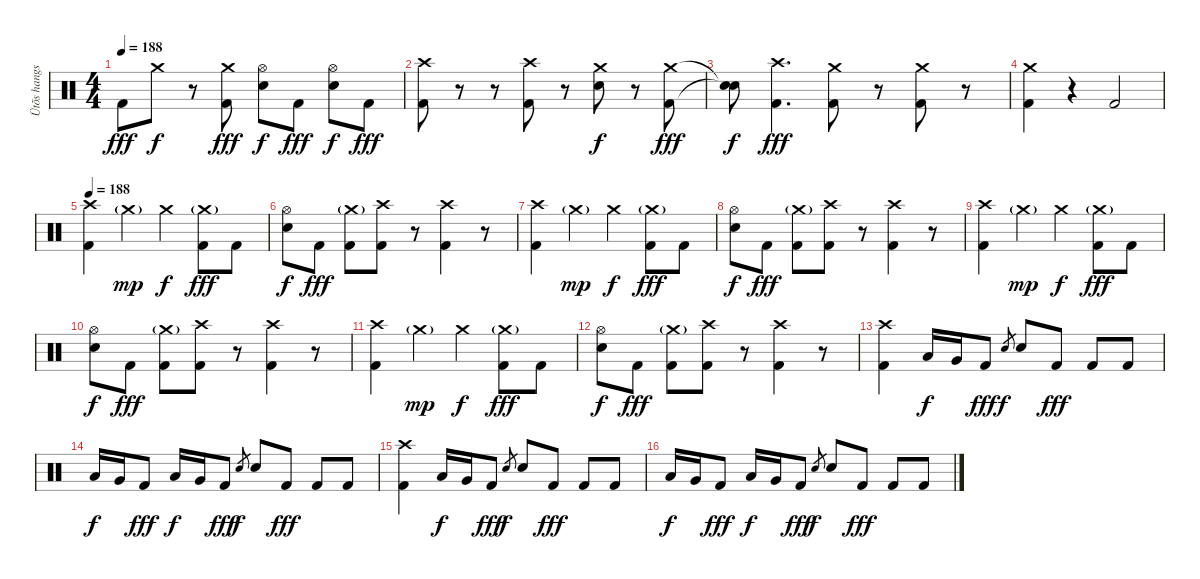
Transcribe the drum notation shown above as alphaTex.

\track ("Ütõs hangszer" "Ütõs hangs") {instrument percussion}
\staff {score}
\articulation defaults
\ts (4 4)
\tempo 188
\clef neutral
\ks c "Kick (hit) 2".8{dy fff} "Crash medium (hit)".8{dy f}
r.8 ("Crash medium (hit)" "Kick (hit) 2").8{dy fff} ("Hi-Hat (open)" "Electric Snare (hit)").8{dy f} "Kick (hit) 2".8{dy fff} ("Hi-Hat (open)" "Electric Snare (hit)").8{dy f} "Kick (hit) 2".8{dy fff} |
("Crash high (hit)" "Kick (hit) 2").8 r.8 r.8 ("Crash high (hit)" "Kick (hit) 2").8 r.8 ("Crash medium (hit)" "Electric Snare (hit)").8{dy f} r.8 ("Crash medium (hit)" "Kick (hit) 2").8{dy fff} |
("Snare (hit)"{t} "Snare (hit)"{t}).8{dy f} ("Crash high (hit)" "Kick (hit) 2").4{d dy fff} ("Crash medium (hit)" "Kick (hit) 2").8 r.8 ("Crash medium (hit)" "Kick (hit) 2").8 r.8 |
("Crash medium (hit)" "Kick (hit) 2").4 r.4 "Kick (hit) 2".2 |
\tempo 188
("Crash high (hit)" "Kick (hit) 2").4 "Crash medium (hit)"{g}.4{dy mp} "Crash medium (hit)".4{dy f} ("Crash medium (hit)"{g} "Kick (hit) 2").8{dy fff} "Kick (hit) 2".8 |
("Hi-Hat (open)" "Electric Snare (hit)").8{dy f} "Kick (hit) 2".8{dy fff} ("Crash medium (hit)"{g} "Kick (hit) 2").8 ("Crash high (hit)" "Kick (hit) 2").8 r.8 ("Crash high (hit)" "Kick (hit) 2").4 r.8 |
("Crash high (hit)" "Kick (hit) 2").4 "Crash medium (hit)"{g}.4{dy mp} "Crash medium (hit)".4{dy f} ("Crash medium (hit)"{g} "Kick (hit) 2").8{dy fff} "Kick (hit) 2".8 |
("Hi-Hat (open)" "Electric Snare (hit)").8{dy f} "Kick (hit) 2".8{dy fff} ("Crash medium (hit)"{g} "Kick (hit) 2").8 ("Crash high (hit)" "Kick (hit) 2").8 r.8 ("Crash high (hit)" "Kick (hit) 2").4 r.8 |
("Crash high (hit)" "Kick (hit) 2").4 "Crash medium (hit)"{g}.4{dy mp} "Crash medium (hit)".4{dy f} ("Crash medium (hit)"{g} "Kick (hit) 2").8{dy fff} "Kick (hit) 2".8 |
("Hi-Hat (open)" "Electric Snare (hit)").8{dy f} "Kick (hit) 2".8{dy fff} ("Crash medium (hit)"{g} "Kick (hit) 2").8 ("Crash high (hit)" "Kick (hit) 2").8 r.8 ("Crash high (hit)" "Kick (hit) 2").4 r.8 |
("Crash high (hit)" "Kick (hit) 2").4 "Crash medium (hit)"{g}.4{dy mp} "Crash medium (hit)".4{dy f} ("Crash medium (hit)"{g} "Kick (hit) 2").8{dy fff} "Kick (hit) 2".8 |
("Hi-Hat (open)" "Electric Snare (hit)").8{dy f} "Kick (hit) 2".8{dy fff} ("Crash medium (hit)"{g} "Kick (hit) 2").8 ("Crash high (hit)" "Kick (hit) 2").8 r.8 ("Crash high (hit)" "Kick (hit) 2").4 r.8 |
("Crash high (hit)" "Kick (hit) 2").4 "Low Tom (hit)".16{dy f} "Very Low Tom (hit)".16 "Kick (hit) 2".8{dy fff} "Electric Snare (hit)".8{gr dy f} "Electric Snare (hit)".8 "Kick (hit) 2".8{dy fff} "Kick (hit) 2".8 "Kick (hit) 2".8 |
"Low Tom (hit)".16{dy f} "Very Low Tom (hit)".16 "Kick (hit) 2".8{dy fff} "Low Tom (hit)".16{dy f} "Very Low Tom (hit)".16 "Kick (hit) 2".8{dy fff} "Electric Snare (hit)".8{gr dy f} "Electric Snare (hit)".8 "Kick (hit) 2".8{dy fff} "Kick (hit) 2".8 "Kick (hit) 2".8 |
("Crash high (hit)" "Kick (hit) 2").4 "Low Tom (hit)".16{dy f} "Very Low Tom (hit)".16 "Kick (hit) 2".8{dy fff} "Electric Snare (hit)".8{gr dy f} "Electric Snare (hit)".8 "Kick (hit) 2".8{dy fff} "Kick (hit) 2".8 "Kick (hit) 2".8 |
"Low Tom (hit)".16{dy f} "Very Low Tom (hit)".16 "Kick (hit) 2".8{dy fff} "Low Tom (hit)".16{dy f} "Very Low Tom (hit)".16 "Kick (hit) 2".8{dy fff} "Electric Snare (hit)".8{gr dy f} "Electric Snare (hit)".8 "Kick (hit) 2".8{dy fff} "Kick (hit) 2".8 "Kick (hit) 2".8
